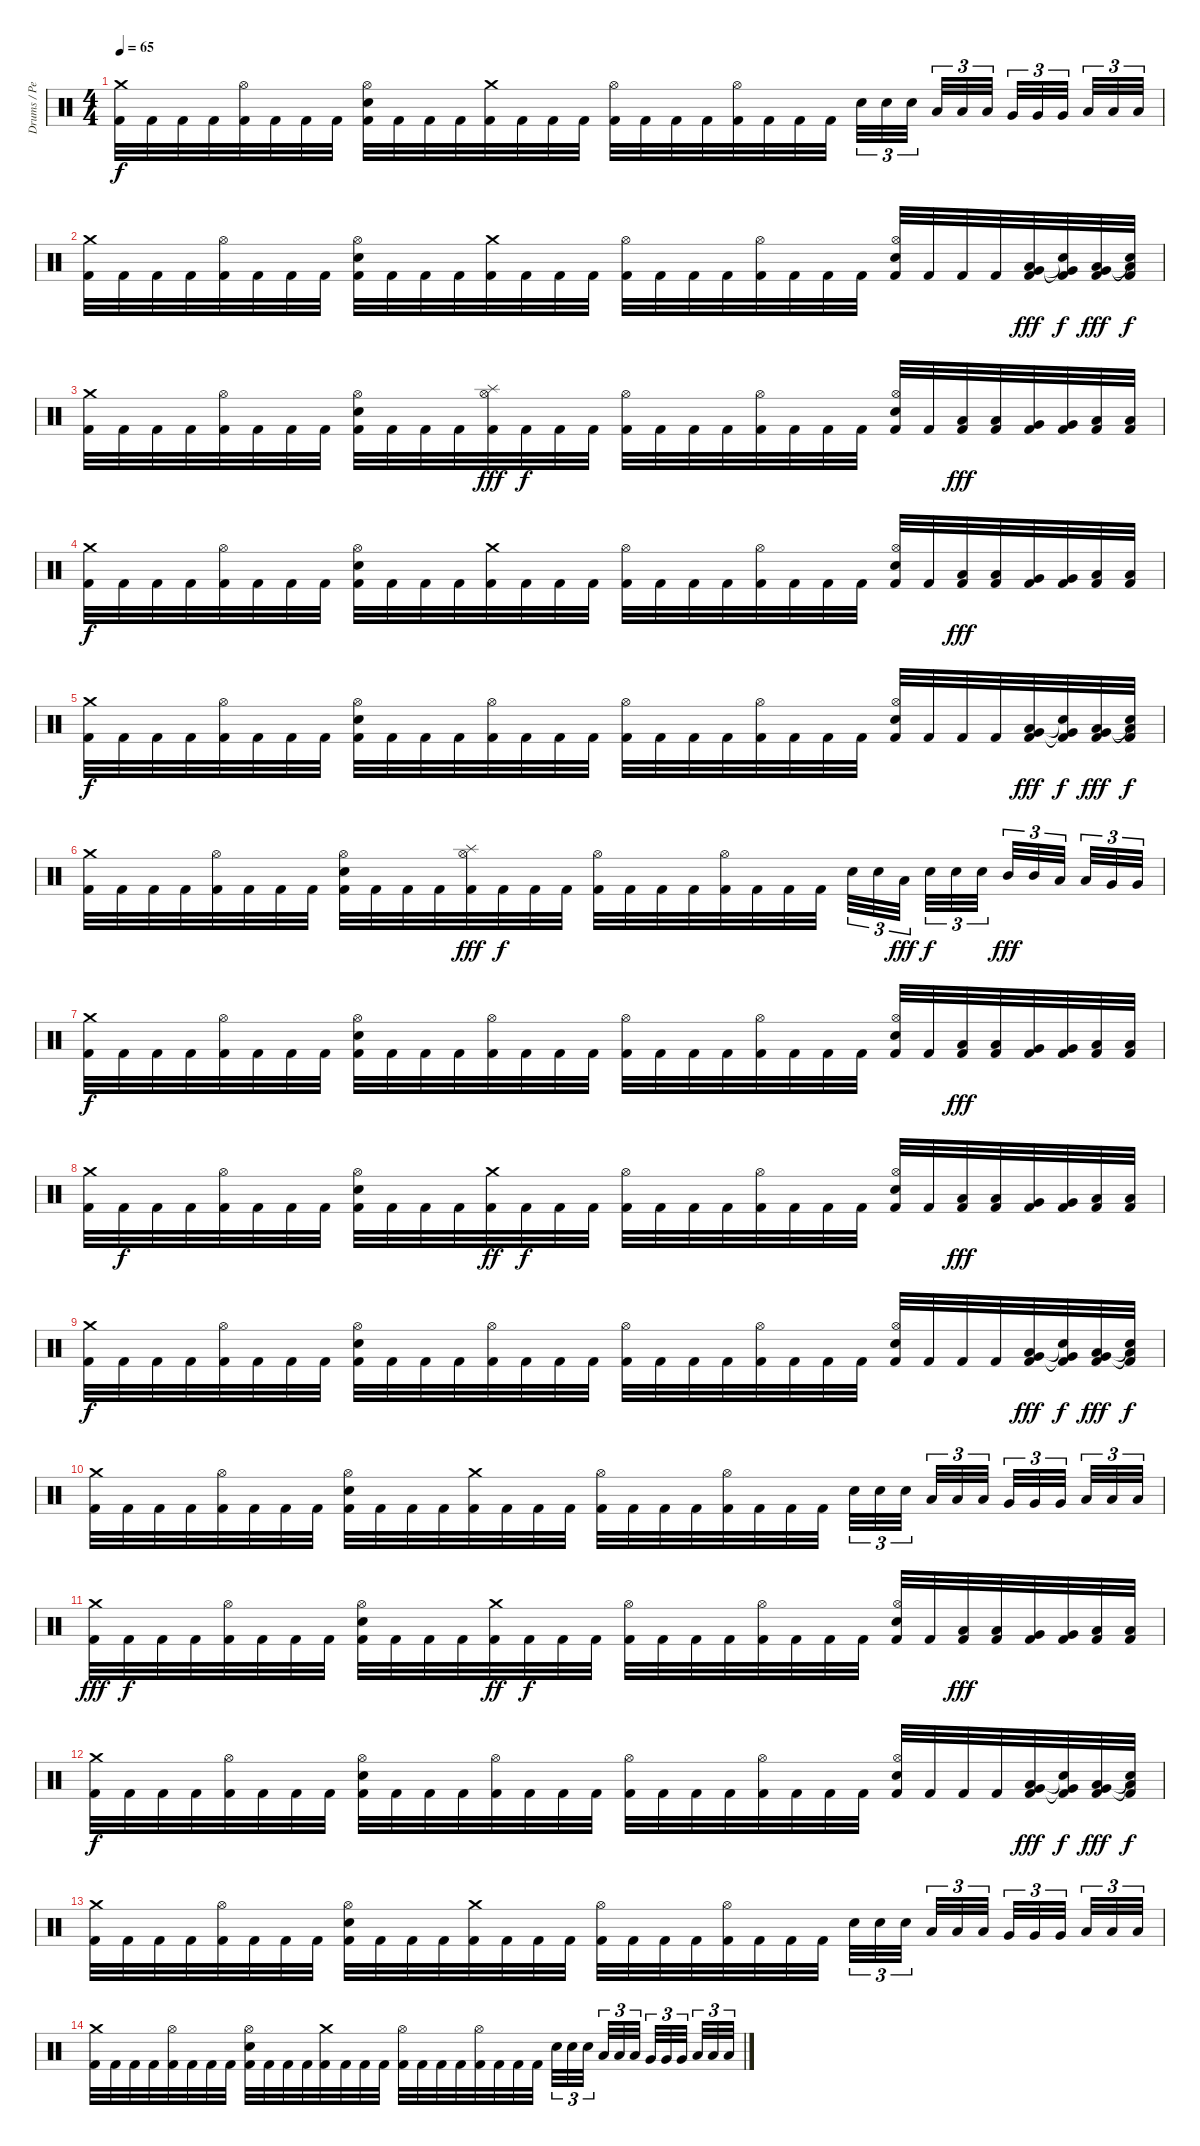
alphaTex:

\track ("Drums / Percussion" "Drums / Pe") {instrument percussion}
\staff {score}
\articulation defaults
\ts (4 4)
\tempo 65
\clef neutral
\ks c
("Crash medium (hit)" "Kick (hit) 2").32{dy f} "Kick (hit) 2".32 "Kick (hit) 2".32 "Kick (hit) 2".32 ("Hi-Hat (open)" "Kick (hit) 2").32 "Kick (hit) 2".32 "Kick (hit) 2".32 "Kick (hit) 2".32 ("Hi-Hat (open)" "Electric Snare (hit)" "Kick (hit) 2").32 "Kick (hit) 2".32 "Kick (hit) 2".32 "Kick (hit) 2".32 ("Crash medium (hit)" "Kick (hit) 2").32 "Kick (hit) 2".32 "Kick (hit) 2".32 "Kick (hit) 2".32 ("Hi-Hat (open)" "Kick (hit) 2").32 "Kick (hit) 2".32 "Kick (hit) 2".32 "Kick (hit) 2".32 ("Hi-Hat (open)" "Kick (hit) 2").32 "Kick (hit) 2".32 "Kick (hit) 2".32 "Kick (hit) 2".32 "Electric Snare (hit)".32{tu (3 2)} "Electric Snare (hit)".32{tu (3 2)} "Electric Snare (hit)".32{tu (3 2)} "Low Tom (hit)".32{tu (3 2)} "Low Tom (hit)".32{tu (3 2)} "Low Tom (hit)".32{tu (3 2)} "Very Low Tom (hit)".32{tu (3 2)} "Very Low Tom (hit)".32{tu (3 2)} "Very Low Tom (hit)".32{tu (3 2)} "Low Floor Tom (hit)".32{tu (3 2)} "Low Floor Tom (hit)".32{tu (3 2)} "Low Floor Tom (hit)".32{tu (3 2)} |
("Crash medium (hit)" "Kick (hit) 2").32 "Kick (hit) 2".32 "Kick (hit) 2".32 "Kick (hit) 2".32 ("Hi-Hat (open)" "Kick (hit) 2").32 "Kick (hit) 2".32 "Kick (hit) 2".32 "Kick (hit) 2".32 ("Hi-Hat (open)" "Electric Snare (hit)" "Kick (hit) 2").32 "Kick (hit) 2".32 "Kick (hit) 2".32 "Kick (hit) 2".32 ("Crash medium (hit)" "Kick (hit) 2").32 "Kick (hit) 2".32 "Kick (hit) 2".32 "Kick (hit) 2".32 ("Hi-Hat (open)" "Kick (hit) 2").32 "Kick (hit) 2".32 "Kick (hit) 2".32 "Kick (hit) 2".32 ("Hi-Hat (open)" "Kick (hit) 2").32 "Kick (hit) 2".32 "Kick (hit) 2".32 "Kick (hit) 2".32 ("Hi-Hat (open)" "Electric Snare (hit)" "Kick (hit) 2").32 "Kick (hit) 2".32 "Kick (hit) 2".32 "Kick (hit) 2".32 ("Very Low Tom (hit)" "Low Tom (hit)" "Kick (hit) 2").32{dy fff} ("Snare (hit)"{t} "Very Low Tom (hit)"{t} "Kick (hit) 2").32{dy f} ("Very Low Tom (hit)" "Low Tom (hit)" "Kick (hit) 2").32{dy fff} ("Snare (hit)"{t} "Low Floor Tom (hit)"{t} "Kick (hit) 2").32{dy f} |
("Crash medium (hit)" "Kick (hit) 2").32 "Kick (hit) 2".32 "Kick (hit) 2".32 "Kick (hit) 2".32 ("Hi-Hat (open)" "Kick (hit) 2").32 "Kick (hit) 2".32 "Kick (hit) 2".32 "Kick (hit) 2".32 ("Hi-Hat (open)" "Electric Snare (hit)" "Kick (hit) 2").32 "Kick (hit) 2".32 "Kick (hit) 2".32 "Kick (hit) 2".32 ("Splash (hit)" "Hi-Hat (open)" "Kick (hit) 2").32{dy fff} "Kick (hit) 2".32{dy f} "Kick (hit) 2".32 "Kick (hit) 2".32 ("Hi-Hat (open)" "Kick (hit) 2").32 "Kick (hit) 2".32 "Kick (hit) 2".32 "Kick (hit) 2".32 ("Hi-Hat (open)" "Kick (hit) 2").32 "Kick (hit) 2".32 "Kick (hit) 2".32 "Kick (hit) 2".32 ("Hi-Hat (open)" "Electric Snare (hit)" "Kick (hit) 2").32 "Kick (hit) 2".32 ("Low Tom (hit)" "Kick (hit) 2").32{dy fff} ("Low Tom (hit)" "Kick (hit) 2").32 ("Very Low Tom (hit)" "Kick (hit) 2").32 ("Very Low Tom (hit)" "Kick (hit) 2").32 ("Low Floor Tom (hit)" "Kick (hit) 2").32 ("Low Floor Tom (hit)" "Kick (hit) 2").32 |
("Crash medium (hit)" "Kick (hit) 2").32{dy f} "Kick (hit) 2".32 "Kick (hit) 2".32 "Kick (hit) 2".32 ("Hi-Hat (open)" "Kick (hit) 2").32 "Kick (hit) 2".32 "Kick (hit) 2".32 "Kick (hit) 2".32 ("Hi-Hat (open)" "Electric Snare (hit)" "Kick (hit) 2").32 "Kick (hit) 2".32 "Kick (hit) 2".32 "Kick (hit) 2".32 ("Crash medium (hit)" "Kick (hit) 2").32 "Kick (hit) 2".32 "Kick (hit) 2".32 "Kick (hit) 2".32 ("Hi-Hat (open)" "Kick (hit) 2").32 "Kick (hit) 2".32 "Kick (hit) 2".32 "Kick (hit) 2".32 ("Hi-Hat (open)" "Kick (hit) 2").32 "Kick (hit) 2".32 "Kick (hit) 2".32 "Kick (hit) 2".32 ("Hi-Hat (open)" "Electric Snare (hit)" "Kick (hit) 2").32 "Kick (hit) 2".32 ("Low Tom (hit)" "Kick (hit) 2").32{dy fff} ("Low Tom (hit)" "Kick (hit) 2").32 ("Very Low Tom (hit)" "Kick (hit) 2").32 ("Very Low Tom (hit)" "Kick (hit) 2").32 ("Low Floor Tom (hit)" "Kick (hit) 2").32 ("Low Floor Tom (hit)" "Kick (hit) 2").32 |
("Crash medium (hit)" "Kick (hit) 2").32{dy f} "Kick (hit) 2".32 "Kick (hit) 2".32 "Kick (hit) 2".32 ("Hi-Hat (open)" "Kick (hit) 2").32 "Kick (hit) 2".32 "Kick (hit) 2".32 "Kick (hit) 2".32 ("Hi-Hat (open)" "Electric Snare (hit)" "Kick (hit) 2").32 "Kick (hit) 2".32 "Kick (hit) 2".32 "Kick (hit) 2".32 ("Hi-Hat (open)" "Kick (hit) 2").32 "Kick (hit) 2".32 "Kick (hit) 2".32 "Kick (hit) 2".32 ("Hi-Hat (open)" "Kick (hit) 2").32 "Kick (hit) 2".32 "Kick (hit) 2".32 "Kick (hit) 2".32 ("Hi-Hat (open)" "Kick (hit) 2").32 "Kick (hit) 2".32 "Kick (hit) 2".32 "Kick (hit) 2".32 ("Hi-Hat (open)" "Electric Snare (hit)" "Kick (hit) 2").32 "Kick (hit) 2".32 "Kick (hit) 2".32 "Kick (hit) 2".32 ("Low Tom (hit)" "Very Low Tom (hit)" "Kick (hit) 2").32{dy fff} ("Snare (hit)"{t} "Very Low Tom (hit)"{t} "Kick (hit) 2").32{dy f} ("Very Low Tom (hit)" "Low Tom (hit)" "Kick (hit) 2").32{dy fff} ("Snare (hit)"{t} "Low Floor Tom (hit)"{t} "Kick (hit) 2").32{dy f} |
("Crash medium (hit)" "Kick (hit) 2").32 "Kick (hit) 2".32 "Kick (hit) 2".32 "Kick (hit) 2".32 ("Hi-Hat (open)" "Kick (hit) 2").32 "Kick (hit) 2".32 "Kick (hit) 2".32 "Kick (hit) 2".32 ("Hi-Hat (open)" "Electric Snare (hit)" "Kick (hit) 2").32 "Kick (hit) 2".32 "Kick (hit) 2".32 "Kick (hit) 2".32 ("Splash (hit)" "Hi-Hat (open)" "Kick (hit) 2").32{dy fff} "Kick (hit) 2".32{dy f} "Kick (hit) 2".32 "Kick (hit) 2".32 ("Hi-Hat (open)" "Kick (hit) 2").32 "Kick (hit) 2".32 "Kick (hit) 2".32 "Kick (hit) 2".32 ("Hi-Hat (open)" "Kick (hit) 2").32 "Kick (hit) 2".32 "Kick (hit) 2".32 "Kick (hit) 2".32 "Electric Snare (hit)".32{tu (3 2)} "Electric Snare (hit)".32{tu (3 2)} "Low Tom (hit)".32{tu (3 2) dy fff} "Electric Snare (hit)".32{tu (3 2) dy f} "Electric Snare (hit)".32{tu (3 2)} "Electric Snare (hit)".32{tu (3 2)} "Mid Tom (hit)".32{tu (3 2) dy fff} "Mid Tom (hit)".32{tu (3 2)} "Low Tom (hit)".32{tu (3 2)} "Low Tom (hit)".32{tu (3 2)} "Very Low Tom (hit)".32{tu (3 2)} "Very Low Tom (hit)".32{tu (3 2)} |
("Crash medium (hit)" "Kick (hit) 2").32{dy f} "Kick (hit) 2".32 "Kick (hit) 2".32 "Kick (hit) 2".32 ("Hi-Hat (open)" "Kick (hit) 2").32 "Kick (hit) 2".32 "Kick (hit) 2".32 "Kick (hit) 2".32 ("Hi-Hat (open)" "Electric Snare (hit)" "Kick (hit) 2").32 "Kick (hit) 2".32 "Kick (hit) 2".32 "Kick (hit) 2".32 ("Hi-Hat (open)" "Kick (hit) 2").32 "Kick (hit) 2".32 "Kick (hit) 2".32 "Kick (hit) 2".32 ("Hi-Hat (open)" "Kick (hit) 2").32 "Kick (hit) 2".32 "Kick (hit) 2".32 "Kick (hit) 2".32 ("Hi-Hat (open)" "Kick (hit) 2").32 "Kick (hit) 2".32 "Kick (hit) 2".32 "Kick (hit) 2".32 ("Hi-Hat (open)" "Electric Snare (hit)" "Kick (hit) 2").32 "Kick (hit) 2".32 ("Low Tom (hit)" "Kick (hit) 2").32{dy fff} ("Low Tom (hit)" "Kick (hit) 2").32 ("Very Low Tom (hit)" "Kick (hit) 2").32 ("Very Low Tom (hit)" "Kick (hit) 2").32 ("Low Floor Tom (hit)" "Kick (hit) 2").32 ("Low Floor Tom (hit)" "Kick (hit) 2").32 |
("Crash medium (hit)" "Kick (hit) 2").32 "Kick (hit) 2".32{dy f} "Kick (hit) 2".32 "Kick (hit) 2".32 ("Hi-Hat (open)" "Kick (hit) 2").32 "Kick (hit) 2".32 "Kick (hit) 2".32 "Kick (hit) 2".32 ("Hi-Hat (open)" "Electric Snare (hit)" "Kick (hit) 2").32 "Kick (hit) 2".32 "Kick (hit) 2".32 "Kick (hit) 2".32 ("Crash medium (hit)" "Kick (hit) 2").32{dy ff} "Kick (hit) 2".32{dy f} "Kick (hit) 2".32 "Kick (hit) 2".32 ("Hi-Hat (open)" "Kick (hit) 2").32 "Kick (hit) 2".32 "Kick (hit) 2".32 "Kick (hit) 2".32 ("Hi-Hat (open)" "Kick (hit) 2").32 "Kick (hit) 2".32 "Kick (hit) 2".32 "Kick (hit) 2".32 ("Hi-Hat (open)" "Electric Snare (hit)" "Kick (hit) 2").32 "Kick (hit) 2".32 ("Low Tom (hit)" "Kick (hit) 2").32{dy fff} ("Low Tom (hit)" "Kick (hit) 2").32 ("Very Low Tom (hit)" "Kick (hit) 2").32 ("Very Low Tom (hit)" "Kick (hit) 2").32 ("Low Floor Tom (hit)" "Kick (hit) 2").32 ("Low Floor Tom (hit)" "Kick (hit) 2").32 |
("Crash medium (hit)" "Kick (hit) 2").32{dy f} "Kick (hit) 2".32 "Kick (hit) 2".32 "Kick (hit) 2".32 ("Hi-Hat (open)" "Kick (hit) 2").32 "Kick (hit) 2".32 "Kick (hit) 2".32 "Kick (hit) 2".32 ("Hi-Hat (open)" "Electric Snare (hit)" "Kick (hit) 2").32 "Kick (hit) 2".32 "Kick (hit) 2".32 "Kick (hit) 2".32 ("Hi-Hat (open)" "Kick (hit) 2").32 "Kick (hit) 2".32 "Kick (hit) 2".32 "Kick (hit) 2".32 ("Hi-Hat (open)" "Kick (hit) 2").32 "Kick (hit) 2".32 "Kick (hit) 2".32 "Kick (hit) 2".32 ("Hi-Hat (open)" "Kick (hit) 2").32 "Kick (hit) 2".32 "Kick (hit) 2".32 "Kick (hit) 2".32 ("Hi-Hat (open)" "Electric Snare (hit)" "Kick (hit) 2").32 "Kick (hit) 2".32 "Kick (hit) 2".32 "Kick (hit) 2".32 ("Low Tom (hit)" "Very Low Tom (hit)" "Kick (hit) 2").32{dy fff} ("Snare (hit)"{t} "Very Low Tom (hit)"{t} "Kick (hit) 2").32{dy f} ("Low Tom (hit)" "Very Low Tom (hit)" "Kick (hit) 2").32{dy fff} ("Snare (hit)"{t} "Low Floor Tom (hit)"{t} "Kick (hit) 2").32{dy f} |
("Crash medium (hit)" "Kick (hit) 2").32 "Kick (hit) 2".32 "Kick (hit) 2".32 "Kick (hit) 2".32 ("Hi-Hat (open)" "Kick (hit) 2").32 "Kick (hit) 2".32 "Kick (hit) 2".32 "Kick (hit) 2".32 ("Hi-Hat (open)" "Electric Snare (hit)" "Kick (hit) 2").32 "Kick (hit) 2".32 "Kick (hit) 2".32 "Kick (hit) 2".32 ("Crash medium (hit)" "Kick (hit) 2").32 "Kick (hit) 2".32 "Kick (hit) 2".32 "Kick (hit) 2".32 ("Hi-Hat (open)" "Kick (hit) 2").32 "Kick (hit) 2".32 "Kick (hit) 2".32 "Kick (hit) 2".32 ("Hi-Hat (open)" "Kick (hit) 2").32 "Kick (hit) 2".32 "Kick (hit) 2".32 "Kick (hit) 2".32 "Electric Snare (hit)".32{tu (3 2)} "Electric Snare (hit)".32{tu (3 2)} "Electric Snare (hit)".32{tu (3 2)} "Low Tom (hit)".32{tu (3 2)} "Low Tom (hit)".32{tu (3 2)} "Low Tom (hit)".32{tu (3 2)} "Very Low Tom (hit)".32{tu (3 2)} "Very Low Tom (hit)".32{tu (3 2)} "Very Low Tom (hit)".32{tu (3 2)} "Low Floor Tom (hit)".32{tu (3 2)} "Low Floor Tom (hit)".32{tu (3 2)} "Low Floor Tom (hit)".32{tu (3 2)} |
("Crash medium (hit)" "Kick (hit) 2").32{dy fff} "Kick (hit) 2".32{dy f} "Kick (hit) 2".32 "Kick (hit) 2".32 ("Hi-Hat (open)" "Kick (hit) 2").32 "Kick (hit) 2".32 "Kick (hit) 2".32 "Kick (hit) 2".32 ("Hi-Hat (open)" "Electric Snare (hit)" "Kick (hit) 2").32 "Kick (hit) 2".32 "Kick (hit) 2".32 "Kick (hit) 2".32 ("Crash medium (hit)" "Kick (hit) 2").32{dy ff} "Kick (hit) 2".32{dy f} "Kick (hit) 2".32 "Kick (hit) 2".32 ("Hi-Hat (open)" "Kick (hit) 2").32 "Kick (hit) 2".32 "Kick (hit) 2".32 "Kick (hit) 2".32 ("Hi-Hat (open)" "Kick (hit) 2").32 "Kick (hit) 2".32 "Kick (hit) 2".32 "Kick (hit) 2".32 ("Hi-Hat (open)" "Electric Snare (hit)" "Kick (hit) 2").32 "Kick (hit) 2".32 ("Low Tom (hit)" "Kick (hit) 2").32{dy fff} ("Low Tom (hit)" "Kick (hit) 2").32 ("Very Low Tom (hit)" "Kick (hit) 2").32 ("Very Low Tom (hit)" "Kick (hit) 2").32 ("Low Floor Tom (hit)" "Kick (hit) 2").32 ("Low Floor Tom (hit)" "Kick (hit) 2").32 |
("Crash medium (hit)" "Kick (hit) 2").32{dy f} "Kick (hit) 2".32 "Kick (hit) 2".32 "Kick (hit) 2".32 ("Hi-Hat (open)" "Kick (hit) 2").32 "Kick (hit) 2".32 "Kick (hit) 2".32 "Kick (hit) 2".32 ("Hi-Hat (open)" "Electric Snare (hit)" "Kick (hit) 2").32 "Kick (hit) 2".32 "Kick (hit) 2".32 "Kick (hit) 2".32 ("Hi-Hat (open)" "Kick (hit) 2").32 "Kick (hit) 2".32 "Kick (hit) 2".32 "Kick (hit) 2".32 ("Hi-Hat (open)" "Kick (hit) 2").32 "Kick (hit) 2".32 "Kick (hit) 2".32 "Kick (hit) 2".32 ("Hi-Hat (open)" "Kick (hit) 2").32 "Kick (hit) 2".32 "Kick (hit) 2".32 "Kick (hit) 2".32 ("Hi-Hat (open)" "Electric Snare (hit)" "Kick (hit) 2").32 "Kick (hit) 2".32 "Kick (hit) 2".32 "Kick (hit) 2".32 ("Low Tom (hit)" "Very Low Tom (hit)" "Kick (hit) 2").32{dy fff} ("Snare (hit)"{t} "Very Low Tom (hit)"{t} "Kick (hit) 2").32{dy f} ("Low Tom (hit)" "Very Low Tom (hit)" "Kick (hit) 2").32{dy fff} ("Snare (hit)"{t} "Low Floor Tom (hit)"{t} "Kick (hit) 2").32{dy f} |
("Crash medium (hit)" "Kick (hit) 2").32 "Kick (hit) 2".32 "Kick (hit) 2".32 "Kick (hit) 2".32 ("Hi-Hat (open)" "Kick (hit) 2").32 "Kick (hit) 2".32 "Kick (hit) 2".32 "Kick (hit) 2".32 ("Hi-Hat (open)" "Electric Snare (hit)" "Kick (hit) 2").32 "Kick (hit) 2".32 "Kick (hit) 2".32 "Kick (hit) 2".32 ("Crash medium (hit)" "Kick (hit) 2").32 "Kick (hit) 2".32 "Kick (hit) 2".32 "Kick (hit) 2".32 ("Hi-Hat (open)" "Kick (hit) 2").32 "Kick (hit) 2".32 "Kick (hit) 2".32 "Kick (hit) 2".32 ("Hi-Hat (open)" "Kick (hit) 2").32 "Kick (hit) 2".32 "Kick (hit) 2".32 "Kick (hit) 2".32 "Electric Snare (hit)".32{tu (3 2)} "Electric Snare (hit)".32{tu (3 2)} "Electric Snare (hit)".32{tu (3 2)} "Low Tom (hit)".32{tu (3 2)} "Low Tom (hit)".32{tu (3 2)} "Low Tom (hit)".32{tu (3 2)} "Very Low Tom (hit)".32{tu (3 2)} "Very Low Tom (hit)".32{tu (3 2)} "Very Low Tom (hit)".32{tu (3 2)} "Low Floor Tom (hit)".32{tu (3 2)} "Low Floor Tom (hit)".32{tu (3 2)} "Low Floor Tom (hit)".32{tu (3 2)} |
("Crash medium (hit)" "Kick (hit) 2").32 "Kick (hit) 2".32 "Kick (hit) 2".32 "Kick (hit) 2".32 ("Hi-Hat (open)" "Kick (hit) 2").32 "Kick (hit) 2".32 "Kick (hit) 2".32 "Kick (hit) 2".32 ("Hi-Hat (open)" "Electric Snare (hit)" "Kick (hit) 2").32 "Kick (hit) 2".32 "Kick (hit) 2".32 "Kick (hit) 2".32 ("Crash medium (hit)" "Kick (hit) 2").32 "Kick (hit) 2".32 "Kick (hit) 2".32 "Kick (hit) 2".32 ("Hi-Hat (open)" "Kick (hit) 2").32 "Kick (hit) 2".32 "Kick (hit) 2".32 "Kick (hit) 2".32 ("Hi-Hat (open)" "Kick (hit) 2").32 "Kick (hit) 2".32 "Kick (hit) 2".32 "Kick (hit) 2".32 "Electric Snare (hit)".32{tu (3 2)} "Electric Snare (hit)".32{tu (3 2)} "Electric Snare (hit)".32{tu (3 2)} "Low Tom (hit)".32{tu (3 2)} "Low Tom (hit)".32{tu (3 2)} "Low Tom (hit)".32{tu (3 2)} "Very Low Tom (hit)".32{tu (3 2)} "Very Low Tom (hit)".32{tu (3 2)} "Very Low Tom (hit)".32{tu (3 2)} "Low Floor Tom (hit)".32{tu (3 2)} "Low Floor Tom (hit)".32{tu (3 2)} "Low Floor Tom (hit)".32{tu (3 2)}
